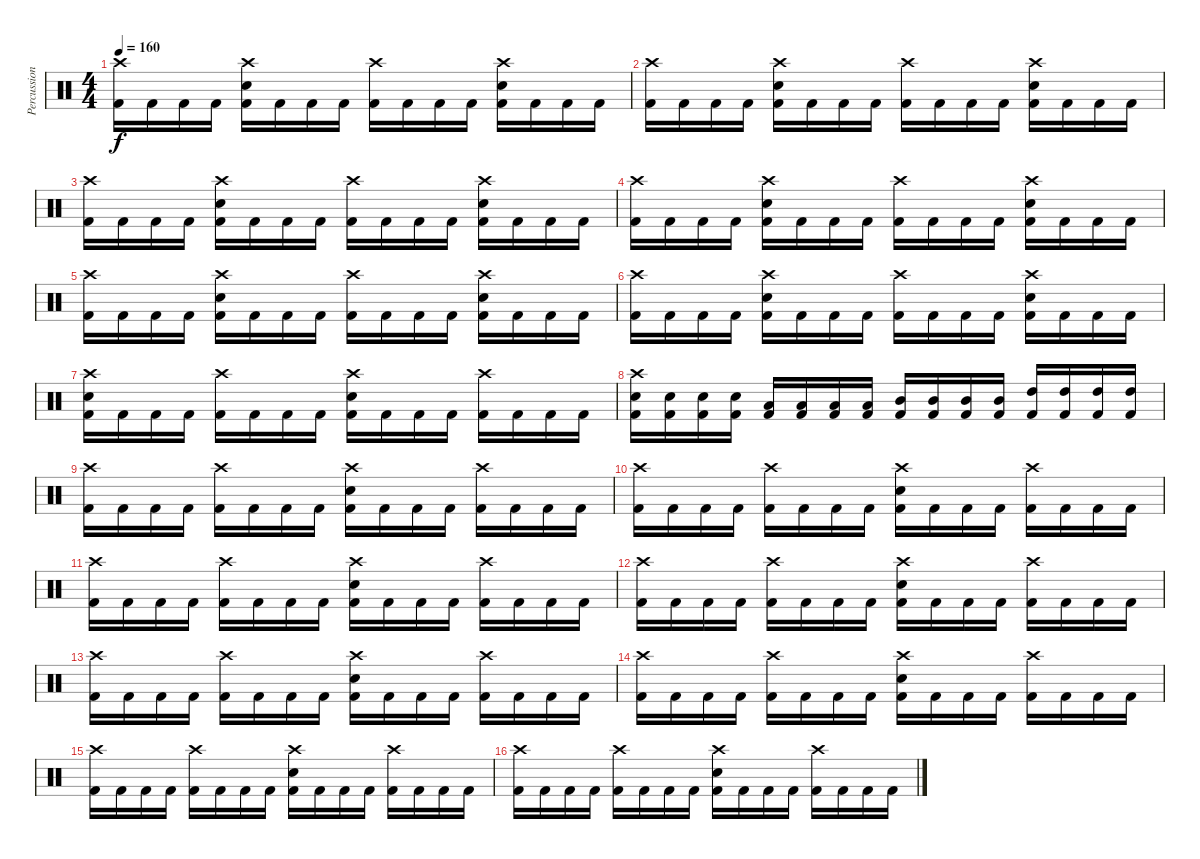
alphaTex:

\track ("Percussion" "Percussion") {instrument percussion}
\staff {score}
\articulation defaults
\ts (4 4)
\tempo 160
\clef neutral
\ks c
("Crash high (hit)" "Kick (hit) 2").16{dy f} "Kick (hit) 2".16 "Kick (hit) 2".16 "Kick (hit) 2".16 ("Crash high (hit)" "Snare (hit) 2" "Kick (hit) 2").16 "Kick (hit) 2".16 "Kick (hit) 2".16 "Kick (hit) 2".16 ("Crash high (hit)" "Kick (hit) 2").16 "Kick (hit) 2".16 "Kick (hit) 2".16 "Kick (hit) 2".16 ("Crash high (hit)" "Snare (hit) 2" "Kick (hit) 2").16 "Kick (hit) 2".16 "Kick (hit) 2".16 "Kick (hit) 2".16 |
("Crash high (hit)" "Kick (hit) 2").16 "Kick (hit) 2".16 "Kick (hit) 2".16 "Kick (hit) 2".16 ("Crash high (hit)" "Snare (hit) 2" "Kick (hit) 2").16 "Kick (hit) 2".16 "Kick (hit) 2".16 "Kick (hit) 2".16 ("Crash high (hit)" "Kick (hit) 2").16 "Kick (hit) 2".16 "Kick (hit) 2".16 "Kick (hit) 2".16 ("Crash high (hit)" "Snare (hit) 2" "Kick (hit) 2").16 "Kick (hit) 2".16 "Kick (hit) 2".16 "Kick (hit) 2".16 |
("Crash high (hit)" "Kick (hit) 2").16 "Kick (hit) 2".16 "Kick (hit) 2".16 "Kick (hit) 2".16 ("Crash high (hit)" "Snare (hit) 2" "Kick (hit) 2").16 "Kick (hit) 2".16 "Kick (hit) 2".16 "Kick (hit) 2".16 ("Crash high (hit)" "Kick (hit) 2").16 "Kick (hit) 2".16 "Kick (hit) 2".16 "Kick (hit) 2".16 ("Crash high (hit)" "Snare (hit) 2" "Kick (hit) 2").16 "Kick (hit) 2".16 "Kick (hit) 2".16 "Kick (hit) 2".16 |
("Crash high (hit)" "Kick (hit) 2").16 "Kick (hit) 2".16 "Kick (hit) 2".16 "Kick (hit) 2".16 ("Crash high (hit)" "Snare (hit) 2" "Kick (hit) 2").16 "Kick (hit) 2".16 "Kick (hit) 2".16 "Kick (hit) 2".16 ("Crash high (hit)" "Kick (hit) 2").16 "Kick (hit) 2".16 "Kick (hit) 2".16 "Kick (hit) 2".16 ("Crash high (hit)" "Snare (hit) 2" "Kick (hit) 2").16 "Kick (hit) 2".16 "Kick (hit) 2".16 "Kick (hit) 2".16 |
("Crash high (hit)" "Kick (hit) 2").16 "Kick (hit) 2".16 "Kick (hit) 2".16 "Kick (hit) 2".16 ("Crash high (hit)" "Snare (hit) 2" "Kick (hit) 2").16 "Kick (hit) 2".16 "Kick (hit) 2".16 "Kick (hit) 2".16 ("Crash high (hit)" "Kick (hit) 2").16 "Kick (hit) 2".16 "Kick (hit) 2".16 "Kick (hit) 2".16 ("Crash high (hit)" "Snare (hit) 2" "Kick (hit) 2").16 "Kick (hit) 2".16 "Kick (hit) 2".16 "Kick (hit) 2".16 |
("Crash high (hit)" "Kick (hit) 2").16 "Kick (hit) 2".16 "Kick (hit) 2".16 "Kick (hit) 2".16 ("Crash high (hit)" "Snare (hit) 2" "Kick (hit) 2").16 "Kick (hit) 2".16 "Kick (hit) 2".16 "Kick (hit) 2".16 ("Crash high (hit)" "Kick (hit) 2").16 "Kick (hit) 2".16 "Kick (hit) 2".16 "Kick (hit) 2".16 ("Crash high (hit)" "Snare (hit) 2" "Kick (hit) 2").16 "Kick (hit) 2".16 "Kick (hit) 2".16 "Kick (hit) 2".16 |
("Crash high (hit)" "Snare (hit) 2" "Kick (hit) 2").16 "Kick (hit) 2".16 "Kick (hit) 2".16 "Kick (hit) 2".16 ("Crash high (hit)" "Kick (hit) 2").16 "Kick (hit) 2".16 "Kick (hit) 2".16 "Kick (hit) 2".16 ("Crash high (hit)" "Snare (hit) 2" "Kick (hit) 2").16 "Kick (hit) 2".16 "Kick (hit) 2".16 "Kick (hit) 2".16 ("Crash high (hit)" "Kick (hit) 2").16 "Kick (hit) 2".16 "Kick (hit) 2".16 "Kick (hit) 2".16 |
("Crash high (hit)" "Snare (hit) 2" "Kick (hit) 2").16 ("Snare (hit) 2" "Kick (hit) 2").16 ("Snare (hit) 2" "Kick (hit) 2").16 ("Snare (hit) 2" "Kick (hit) 2").16 ("Low Tom (hit)" "Kick (hit) 2").16 ("Low Tom (hit)" "Kick (hit) 2").16 ("Low Tom (hit)" "Kick (hit) 2").16 ("Low Tom (hit)" "Kick (hit) 2").16 ("Mid Tom (hit)" "Kick (hit) 2").16 ("Mid Tom (hit)" "Kick (hit) 2").16 ("Mid Tom (hit)" "Kick (hit) 2").16 ("Mid Tom (hit)" "Kick (hit) 2").16 ("High Tom (hit)" "Kick (hit) 2").16 ("High Tom (hit)" "Kick (hit) 2").16 ("High Tom (hit)" "Kick (hit) 2").16 ("High Tom (hit)" "Kick (hit) 2").16 |
("Crash high (hit)" "Kick (hit) 2").16 "Kick (hit) 2".16 "Kick (hit) 2".16 "Kick (hit) 2".16 ("Crash high (hit)" "Kick (hit) 2").16 "Kick (hit) 2".16 "Kick (hit) 2".16 "Kick (hit) 2".16 ("Crash high (hit)" "Snare (hit) 2" "Kick (hit) 2").16 "Kick (hit) 2".16 "Kick (hit) 2".16 "Kick (hit) 2".16 ("Crash high (hit)" "Kick (hit) 2").16 "Kick (hit) 2".16 "Kick (hit) 2".16 "Kick (hit) 2".16 |
("Crash high (hit)" "Kick (hit) 2").16 "Kick (hit) 2".16 "Kick (hit) 2".16 "Kick (hit) 2".16 ("Crash high (hit)" "Kick (hit) 2").16 "Kick (hit) 2".16 "Kick (hit) 2".16 "Kick (hit) 2".16 ("Crash high (hit)" "Snare (hit) 2" "Kick (hit) 2").16 "Kick (hit) 2".16 "Kick (hit) 2".16 "Kick (hit) 2".16 ("Crash high (hit)" "Kick (hit) 2").16 "Kick (hit) 2".16 "Kick (hit) 2".16 "Kick (hit) 2".16 |
("Crash high (hit)" "Kick (hit) 2").16 "Kick (hit) 2".16 "Kick (hit) 2".16 "Kick (hit) 2".16 ("Crash high (hit)" "Kick (hit) 2").16 "Kick (hit) 2".16 "Kick (hit) 2".16 "Kick (hit) 2".16 ("Crash high (hit)" "Snare (hit) 2" "Kick (hit) 2").16 "Kick (hit) 2".16 "Kick (hit) 2".16 "Kick (hit) 2".16 ("Crash high (hit)" "Kick (hit) 2").16 "Kick (hit) 2".16 "Kick (hit) 2".16 "Kick (hit) 2".16 |
("Crash high (hit)" "Kick (hit) 2").16 "Kick (hit) 2".16 "Kick (hit) 2".16 "Kick (hit) 2".16 ("Crash high (hit)" "Kick (hit) 2").16 "Kick (hit) 2".16 "Kick (hit) 2".16 "Kick (hit) 2".16 ("Crash high (hit)" "Snare (hit) 2" "Kick (hit) 2").16 "Kick (hit) 2".16 "Kick (hit) 2".16 "Kick (hit) 2".16 ("Crash high (hit)" "Kick (hit) 2").16 "Kick (hit) 2".16 "Kick (hit) 2".16 "Kick (hit) 2".16 |
("Crash high (hit)" "Kick (hit) 2").16 "Kick (hit) 2".16 "Kick (hit) 2".16 "Kick (hit) 2".16 ("Crash high (hit)" "Kick (hit) 2").16 "Kick (hit) 2".16 "Kick (hit) 2".16 "Kick (hit) 2".16 ("Crash high (hit)" "Snare (hit) 2" "Kick (hit) 2").16 "Kick (hit) 2".16 "Kick (hit) 2".16 "Kick (hit) 2".16 ("Crash high (hit)" "Kick (hit) 2").16 "Kick (hit) 2".16 "Kick (hit) 2".16 "Kick (hit) 2".16 |
("Crash high (hit)" "Kick (hit) 2").16 "Kick (hit) 2".16 "Kick (hit) 2".16 "Kick (hit) 2".16 ("Crash high (hit)" "Kick (hit) 2").16 "Kick (hit) 2".16 "Kick (hit) 2".16 "Kick (hit) 2".16 ("Crash high (hit)" "Snare (hit) 2" "Kick (hit) 2").16 "Kick (hit) 2".16 "Kick (hit) 2".16 "Kick (hit) 2".16 ("Crash high (hit)" "Kick (hit) 2").16 "Kick (hit) 2".16 "Kick (hit) 2".16 "Kick (hit) 2".16 |
("Crash high (hit)" "Kick (hit) 2").16 "Kick (hit) 2".16 "Kick (hit) 2".16 "Kick (hit) 2".16 ("Crash high (hit)" "Kick (hit) 2").16 "Kick (hit) 2".16 "Kick (hit) 2".16 "Kick (hit) 2".16 ("Crash high (hit)" "Snare (hit) 2" "Kick (hit) 2").16 "Kick (hit) 2".16 "Kick (hit) 2".16 "Kick (hit) 2".16 ("Crash high (hit)" "Kick (hit) 2").16 "Kick (hit) 2".16 "Kick (hit) 2".16 "Kick (hit) 2".16 |
("Crash high (hit)" "Kick (hit) 2").16 "Kick (hit) 2".16 "Kick (hit) 2".16 "Kick (hit) 2".16 ("Crash high (hit)" "Kick (hit) 2").16 "Kick (hit) 2".16 "Kick (hit) 2".16 "Kick (hit) 2".16 ("Crash high (hit)" "Snare (hit) 2" "Kick (hit) 2").16 "Kick (hit) 2".16 "Kick (hit) 2".16 "Kick (hit) 2".16 ("Crash high (hit)" "Kick (hit) 2").16 "Kick (hit) 2".16 "Kick (hit) 2".16 "Kick (hit) 2".16
